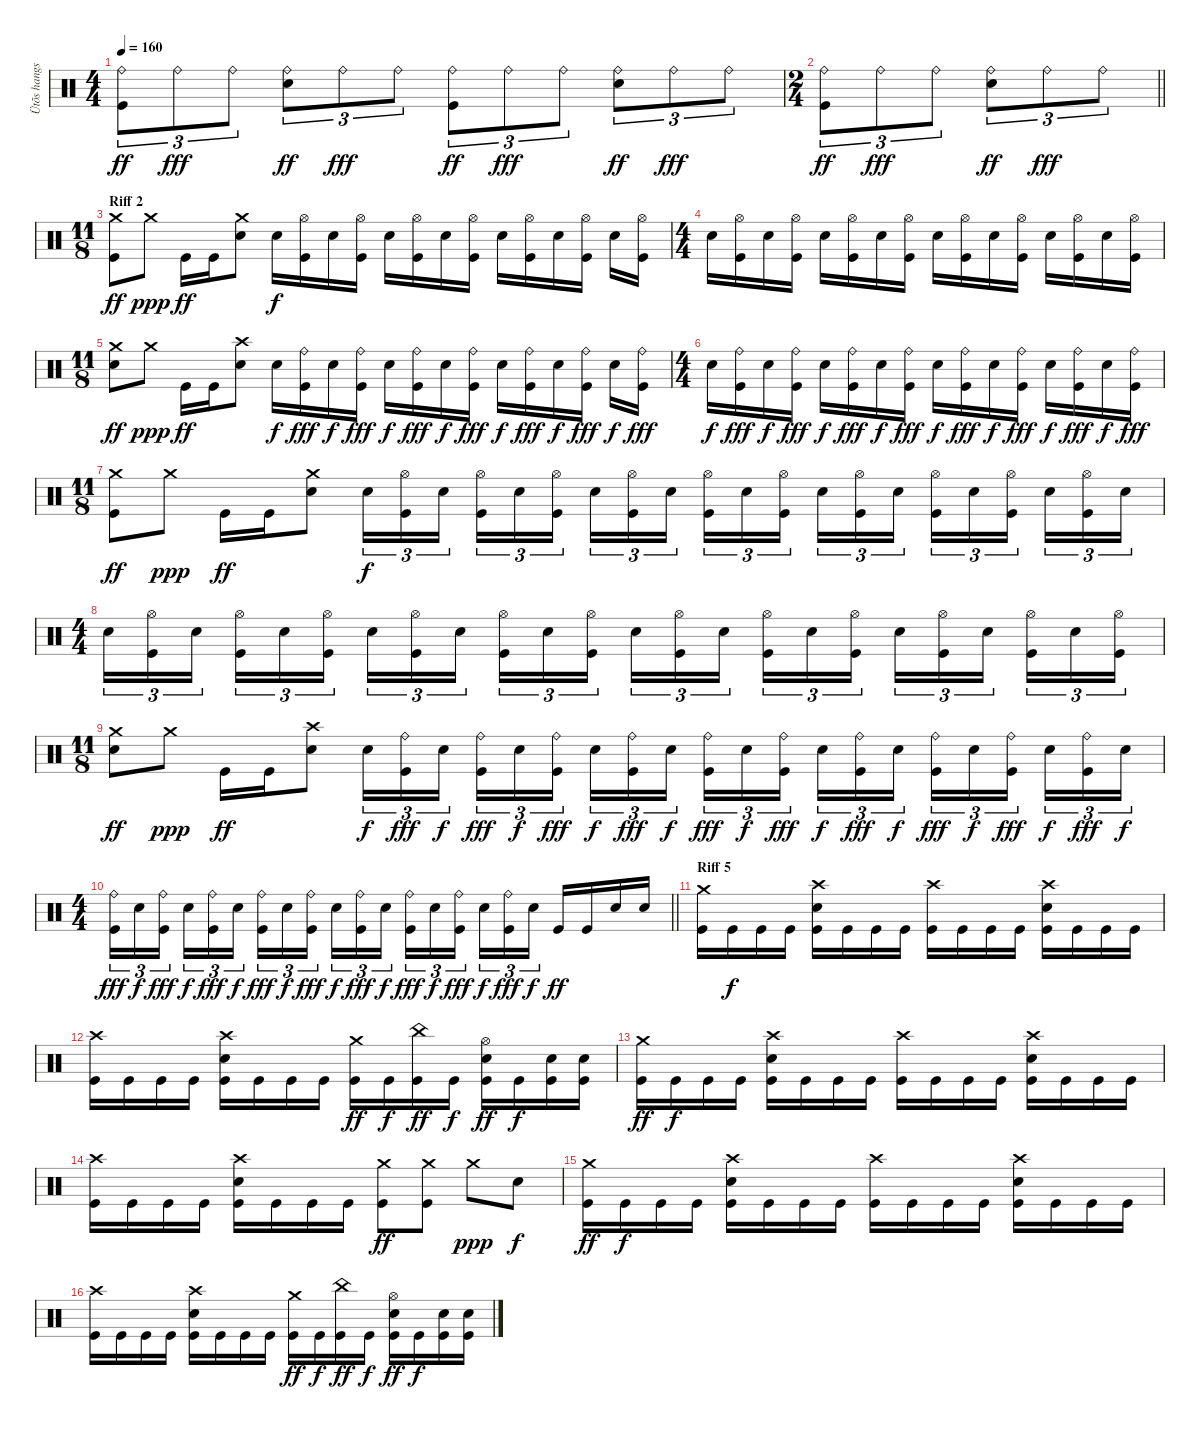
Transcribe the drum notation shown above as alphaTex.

\track ("Ütõs hangszer" "Ütõs hangs") {instrument percussion}
\staff {score}
\articulation defaults
\ts (4 4)
\tempo 160
\clef neutral
\ks c
("Ride (bell)" "Kick (hit)").8{tu (3 2) dy ff} "Ride (bell)".8{tu (3 2) dy fff} "Ride (bell)".8{tu (3 2)} ("Ride (bell)" "Electric Snare (hit)").8{tu (3 2) dy ff} "Ride (bell)".8{tu (3 2) dy fff} "Ride (bell)".8{tu (3 2)} ("Ride (bell)" "Kick (hit)").8{tu (3 2) dy ff} "Ride (bell)".8{tu (3 2) dy fff} "Ride (bell)".8{tu (3 2)} ("Ride (bell)" "Electric Snare (hit)").8{tu (3 2) dy ff} "Ride (bell)".8{tu (3 2) dy fff} "Ride (bell)".8{tu (3 2)} |
\ts (2 4)
\barLineRight lightlight
("Ride (bell)" "Kick (hit)").8{tu (3 2) dy ff} "Ride (bell)".8{tu (3 2) dy fff} "Ride (bell)".8{tu (3 2)} ("Ride (bell)" "Electric Snare (hit)").8{tu (3 2) dy ff} "Ride (bell)".8{tu (3 2) dy fff} "Ride (bell)".8{tu (3 2)} |
\ts (11 8)
\section ("" "Riff 2")
("Crash medium (hit)" "Kick (hit)").8{dy ff} "Crash medium (hit)".8{dy ppp} "Kick (hit)".16{dy ff} "Kick (hit)".16 ("Crash medium (hit)" "Electric Snare (hit)").8 "Electric Snare (hit)".16{dy f} ("Hi-Hat (open)" "Kick (hit)").16 "Electric Snare (hit)".16 ("Hi-Hat (open)" "Kick (hit)").16 "Electric Snare (hit)".16 ("Hi-Hat (open)" "Kick (hit)").16 "Electric Snare (hit)".16 ("Hi-Hat (open)" "Kick (hit)").16 "Electric Snare (hit)".16 ("Hi-Hat (open)" "Kick (hit)").16 "Electric Snare (hit)".16 ("Hi-Hat (open)" "Kick (hit)").16 "Electric Snare (hit)".16 ("Hi-Hat (open)" "Kick (hit)").16 |
\ts (4 4)
"Electric Snare (hit)".16 ("Hi-Hat (open)" "Kick (hit)").16 "Electric Snare (hit)".16 ("Hi-Hat (open)" "Kick (hit)").16 "Electric Snare (hit)".16 ("Hi-Hat (open)" "Kick (hit)").16 "Electric Snare (hit)".16 ("Hi-Hat (open)" "Kick (hit)").16 "Electric Snare (hit)".16 ("Hi-Hat (open)" "Kick (hit)").16 "Electric Snare (hit)".16 ("Hi-Hat (open)" "Kick (hit)").16 "Electric Snare (hit)".16 ("Hi-Hat (open)" "Kick (hit)").16 "Electric Snare (hit)".16 ("Hi-Hat (open)" "Kick (hit)").16 |
\ts (11 8)
("Crash medium (hit)" "Electric Snare (hit)").8{dy ff} "Crash medium (hit)".8{dy ppp} "Kick (hit)".16{dy ff} "Kick (hit)".16 ("Crash high (hit)" "Electric Snare (hit)").8 "Electric Snare (hit)".16{dy f} ("Ride (bell)" "Kick (hit)").16{dy fff} "Electric Snare (hit)".16{dy f} ("Ride (bell)" "Kick (hit)").16{dy fff} "Electric Snare (hit)".16{dy f} ("Ride (bell)" "Kick (hit)").16{dy fff} "Electric Snare (hit)".16{dy f} ("Ride (bell)" "Kick (hit)").16{dy fff} "Electric Snare (hit)".16{dy f} ("Ride (bell)" "Kick (hit)").16{dy fff} "Electric Snare (hit)".16{dy f} ("Ride (bell)" "Kick (hit)").16{dy fff} "Electric Snare (hit)".16{dy f} ("Ride (bell)" "Kick (hit)").16{dy fff} |
\ts (4 4)
"Electric Snare (hit)".16{dy f} ("Ride (bell)" "Kick (hit)").16{dy fff} "Electric Snare (hit)".16{dy f} ("Ride (bell)" "Kick (hit)").16{dy fff} "Electric Snare (hit)".16{dy f} ("Ride (bell)" "Kick (hit)").16{dy fff} "Electric Snare (hit)".16{dy f} ("Ride (bell)" "Kick (hit)").16{dy fff} "Electric Snare (hit)".16{dy f} ("Ride (bell)" "Kick (hit)").16{dy fff} "Electric Snare (hit)".16{dy f} ("Ride (bell)" "Kick (hit)").16{dy fff} "Electric Snare (hit)".16{dy f} ("Ride (bell)" "Kick (hit)").16{dy fff} "Electric Snare (hit)".16{dy f} ("Ride (bell)" "Kick (hit)").16{dy fff} |
\ts (11 8)
("Crash medium (hit)" "Kick (hit)").8{dy ff} "Crash medium (hit)".8{dy ppp} "Kick (hit)".16{dy ff} "Kick (hit)".16 ("Crash medium (hit)" "Electric Snare (hit)").8 "Electric Snare (hit)".16{tu (3 2) dy f} ("Hi-Hat (open)" "Kick (hit)").16{tu (3 2)} "Electric Snare (hit)".16{tu (3 2)} ("Hi-Hat (open)" "Kick (hit)").16{tu (3 2)} "Electric Snare (hit)".16{tu (3 2)} ("Hi-Hat (open)" "Kick (hit)").16{tu (3 2)} "Electric Snare (hit)".16{tu (3 2)} ("Hi-Hat (open)" "Kick (hit)").16{tu (3 2)} "Electric Snare (hit)".16{tu (3 2)} ("Hi-Hat (open)" "Kick (hit)").16{tu (3 2)} "Electric Snare (hit)".16{tu (3 2)} ("Hi-Hat (open)" "Kick (hit)").16{tu (3 2)} "Electric Snare (hit)".16{tu (3 2)} ("Hi-Hat (open)" "Kick (hit)").16{tu (3 2)} "Electric Snare (hit)".16{tu (3 2)} ("Hi-Hat (open)" "Kick (hit)").16{tu (3 2)} "Electric Snare (hit)".16{tu (3 2)} ("Hi-Hat (open)" "Kick (hit)").16{tu (3 2)} "Electric Snare (hit)".16{tu (3 2)} ("Hi-Hat (open)" "Kick (hit)").16{tu (3 2)} "Electric Snare (hit)".16{tu (3 2)} |
\ts (4 4)
"Electric Snare (hit)".16{tu (3 2)} ("Hi-Hat (open)" "Kick (hit)").16{tu (3 2)} "Electric Snare (hit)".16{tu (3 2) beam splitsecondary} ("Hi-Hat (open)" "Kick (hit)").16{tu (3 2)} "Electric Snare (hit)".16{tu (3 2)} ("Hi-Hat (open)" "Kick (hit)").16{tu (3 2)} "Electric Snare (hit)".16{tu (3 2)} ("Hi-Hat (open)" "Kick (hit)").16{tu (3 2)} "Electric Snare (hit)".16{tu (3 2) beam splitsecondary} ("Hi-Hat (open)" "Kick (hit)").16{tu (3 2)} "Electric Snare (hit)".16{tu (3 2)} ("Hi-Hat (open)" "Kick (hit)").16{tu (3 2)} "Electric Snare (hit)".16{tu (3 2)} ("Hi-Hat (open)" "Kick (hit)").16{tu (3 2)} "Electric Snare (hit)".16{tu (3 2) beam splitsecondary} ("Hi-Hat (open)" "Kick (hit)").16{tu (3 2)} "Electric Snare (hit)".16{tu (3 2)} ("Hi-Hat (open)" "Kick (hit)").16{tu (3 2)} "Electric Snare (hit)".16{tu (3 2)} ("Hi-Hat (open)" "Kick (hit)").16{tu (3 2)} "Electric Snare (hit)".16{tu (3 2) beam splitsecondary} ("Hi-Hat (open)" "Kick (hit)").16{tu (3 2)} "Electric Snare (hit)".16{tu (3 2)} ("Hi-Hat (open)" "Kick (hit)").16{tu (3 2)} |
\ts (11 8)
("Crash medium (hit)" "Electric Snare (hit)").8{dy ff} "Crash medium (hit)".8{dy ppp} "Kick (hit)".16{dy ff} "Kick (hit)".16 ("Crash high (hit)" "Electric Snare (hit)").8 "Electric Snare (hit)".16{tu (3 2) dy f} ("Ride (bell)" "Kick (hit)").16{tu (3 2) dy fff} "Electric Snare (hit)".16{tu (3 2) dy f} ("Ride (bell)" "Kick (hit)").16{tu (3 2) dy fff} "Electric Snare (hit)".16{tu (3 2) dy f} ("Ride (bell)" "Kick (hit)").16{tu (3 2) dy fff} "Electric Snare (hit)".16{tu (3 2) dy f} ("Ride (bell)" "Kick (hit)").16{tu (3 2) dy fff} "Electric Snare (hit)".16{tu (3 2) dy f} ("Ride (bell)" "Kick (hit)").16{tu (3 2) dy fff} "Electric Snare (hit)".16{tu (3 2) dy f} ("Ride (bell)" "Kick (hit)").16{tu (3 2) dy fff} "Electric Snare (hit)".16{tu (3 2) dy f} ("Ride (bell)" "Kick (hit)").16{tu (3 2) dy fff} "Electric Snare (hit)".16{tu (3 2) dy f} ("Ride (bell)" "Kick (hit)").16{tu (3 2) dy fff} "Electric Snare (hit)".16{tu (3 2) dy f} ("Ride (bell)" "Kick (hit)").16{tu (3 2) dy fff} "Electric Snare (hit)".16{tu (3 2) dy f} ("Ride (bell)" "Kick (hit)").16{tu (3 2) dy fff} "Electric Snare (hit)".16{tu (3 2) dy f} |
\ts (4 4)
\barLineRight lightlight
("Ride (bell)" "Kick (hit)").16{tu (3 2) dy fff} "Electric Snare (hit)".16{tu (3 2) dy f} ("Ride (bell)" "Kick (hit)").16{tu (3 2) dy fff beam splitsecondary} "Electric Snare (hit)".16{tu (3 2) dy f} ("Ride (bell)" "Kick (hit)").16{tu (3 2) dy fff} "Electric Snare (hit)".16{tu (3 2) dy f} ("Ride (bell)" "Kick (hit)").16{tu (3 2) dy fff} "Electric Snare (hit)".16{tu (3 2) dy f} ("Ride (bell)" "Kick (hit)").16{tu (3 2) dy fff beam splitsecondary} "Electric Snare (hit)".16{tu (3 2) dy f} ("Ride (bell)" "Kick (hit)").16{tu (3 2) dy fff} "Electric Snare (hit)".16{tu (3 2) dy f} ("Ride (bell)" "Kick (hit)").16{tu (3 2) dy fff} "Electric Snare (hit)".16{tu (3 2) dy f} ("Ride (bell)" "Kick (hit)").16{tu (3 2) dy fff beam splitsecondary} "Electric Snare (hit)".16{tu (3 2) dy f} ("Ride (bell)" "Kick (hit)").16{tu (3 2) dy fff} "Electric Snare (hit)".16{tu (3 2) dy f} "Kick (hit)".16{dy ff} "Kick (hit)".16 "Electric Snare (hit)".16 "Electric Snare (hit)".16 |
\section ("" "Riff 5")
("Crash medium (hit)" "Kick (hit)").16 "Kick (hit)".16{dy f} "Kick (hit)".16 "Kick (hit)".16 ("Crash high (hit)" "Electric Snare (hit)" "Kick (hit)").16 "Kick (hit)".16 "Kick (hit)".16 "Kick (hit)".16 ("Crash high (hit)" "Kick (hit)").16 "Kick (hit)".16 "Kick (hit)".16 "Kick (hit)".16 ("Crash high (hit)" "Electric Snare (hit)" "Kick (hit)").16 "Kick (hit)".16 "Kick (hit)".16 "Kick (hit)".16 |
("Crash high (hit)" "Kick (hit)").16 "Kick (hit)".16 "Kick (hit)".16 "Kick (hit)".16 ("Crash high (hit)" "Electric Snare (hit)" "Kick (hit)").16 "Kick (hit)".16 "Kick (hit)".16 "Kick (hit)".16 ("Crash medium (hit)" "Kick (hit)").16{dy ff} "Kick (hit)".16{dy f} ("China (hit)" "Kick (hit)").16{dy ff} "Kick (hit)".16{dy f} ("Hi-Hat (open)" "Electric Snare (hit)" "Kick (hit)").16{dy ff} "Kick (hit)".16{dy f} ("Electric Snare (hit)" "Kick (hit)").16 ("Electric Snare (hit)" "Kick (hit)").16 |
("Crash medium (hit)" "Kick (hit)").16{dy ff} "Kick (hit)".16{dy f} "Kick (hit)".16 "Kick (hit)".16 ("Crash high (hit)" "Electric Snare (hit)" "Kick (hit)").16 "Kick (hit)".16 "Kick (hit)".16 "Kick (hit)".16 ("Crash high (hit)" "Kick (hit)").16 "Kick (hit)".16 "Kick (hit)".16 "Kick (hit)".16 ("Crash high (hit)" "Electric Snare (hit)" "Kick (hit)").16 "Kick (hit)".16 "Kick (hit)".16 "Kick (hit)".16 |
("Crash high (hit)" "Kick (hit)").16 "Kick (hit)".16 "Kick (hit)".16 "Kick (hit)".16 ("Crash high (hit)" "Electric Snare (hit)" "Kick (hit)").16 "Kick (hit)".16 "Kick (hit)".16 "Kick (hit)".16 ("Crash medium (hit)" "Kick (hit)").8{dy ff} ("Crash medium (hit)" "Kick (hit)").8 "Crash medium (hit)".8{dy ppp} "Electric Snare (hit)".8{dy f} |
("Crash medium (hit)" "Kick (hit)").16{dy ff} "Kick (hit)".16{dy f} "Kick (hit)".16 "Kick (hit)".16 ("Crash high (hit)" "Electric Snare (hit)" "Kick (hit)").16 "Kick (hit)".16 "Kick (hit)".16 "Kick (hit)".16 ("Crash high (hit)" "Kick (hit)").16 "Kick (hit)".16 "Kick (hit)".16 "Kick (hit)".16 ("Crash high (hit)" "Electric Snare (hit)" "Kick (hit)").16 "Kick (hit)".16 "Kick (hit)".16 "Kick (hit)".16 |
("Crash high (hit)" "Kick (hit)").16 "Kick (hit)".16 "Kick (hit)".16 "Kick (hit)".16 ("Crash high (hit)" "Electric Snare (hit)" "Kick (hit)").16 "Kick (hit)".16 "Kick (hit)".16 "Kick (hit)".16 ("Crash medium (hit)" "Kick (hit)").16{dy ff} "Kick (hit)".16{dy f} ("China (hit)" "Kick (hit)").16{dy ff} "Kick (hit)".16{dy f} ("Hi-Hat (open)" "Electric Snare (hit)" "Kick (hit)").16{dy ff} "Kick (hit)".16{dy f} ("Electric Snare (hit)" "Kick (hit)").16 ("Electric Snare (hit)" "Kick (hit)").16
